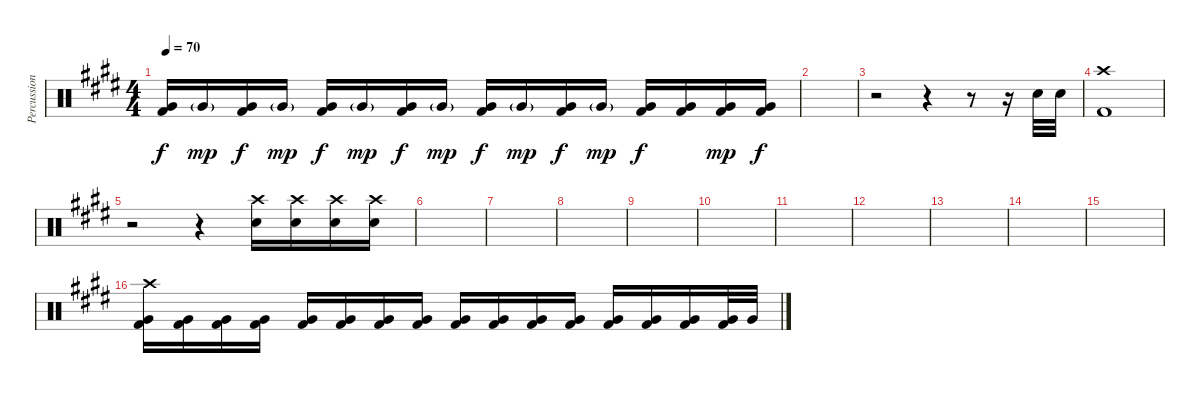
\track ("Percussion" "Percussion") {instrument percussion}
\staff {score}
\articulation defaults
\ts (4 4)
\tempo 70
\clef neutral
\ks e
("Very Low Tom (hit)" "Kick (hit) 2").16{dy f} "Very Low Tom (hit)"{g}.16{dy mp} ("Very Low Tom (hit)" "Kick (hit) 2").16{dy f} "Very Low Tom (hit)"{g}.16{dy mp} ("Very Low Tom (hit)" "Kick (hit) 2").16{dy f} "Very Low Tom (hit)"{g}.16{dy mp} ("Very Low Tom (hit)" "Kick (hit) 2").16{dy f} "Very Low Tom (hit)"{g}.16{dy mp} ("Very Low Tom (hit)" "Kick (hit) 2").16{dy f} "Very Low Tom (hit)"{g}.16{dy mp} ("Very Low Tom (hit)" "Kick (hit) 2").16{dy f} "Very Low Tom (hit)"{g}.16{dy mp} ("Very Low Tom (hit)" "Kick (hit) 2").16{dy f} ("Very Low Tom (hit)" "Kick (hit) 2").16 ("Very Low Tom (hit)" "Kick (hit) 2").16{dy mp} ("Very Low Tom (hit)" "Kick (hit) 2").16{dy f} |
|
r.2 r.4 r.8 r.16 "Electric Snare (hit)".32 "Electric Snare (hit)".32 |
("Crash high (hit)" "Kick (hit) 2").1 |
r.2 r.4 ("Crash high (hit)" "Electric Snare (hit)").16 ("Crash high (hit)" "Electric Snare (hit)").16 ("Crash high (hit)" "Electric Snare (hit)").16 ("Crash high (hit)" "Electric Snare (hit)").16 |
|
|
|
|
|
|
|
|
|
|
("Crash high (hit)" "Very Low Tom (hit)" "Kick (hit) 2").16{volume 16} ("Very Low Tom (hit)" "Kick (hit) 2").16 ("Very Low Tom (hit)" "Kick (hit) 2").16 ("Very Low Tom (hit)" "Kick (hit) 2").16 ("Very Low Tom (hit)" "Kick (hit) 2").16 ("Very Low Tom (hit)" "Kick (hit) 2").16 ("Very Low Tom (hit)" "Kick (hit) 2").16 ("Very Low Tom (hit)" "Kick (hit) 2").16 ("Very Low Tom (hit)" "Kick (hit) 2").16 ("Very Low Tom (hit)" "Kick (hit) 2").16 ("Very Low Tom (hit)" "Kick (hit) 2").16 ("Very Low Tom (hit)" "Kick (hit) 2").16 ("Very Low Tom (hit)" "Kick (hit) 2").16 ("Very Low Tom (hit)" "Kick (hit) 2").16 ("Very Low Tom (hit)" "Kick (hit) 2").16 ("Very Low Tom (hit)" "Kick (hit) 2").32 "Very Low Tom (hit)".32
